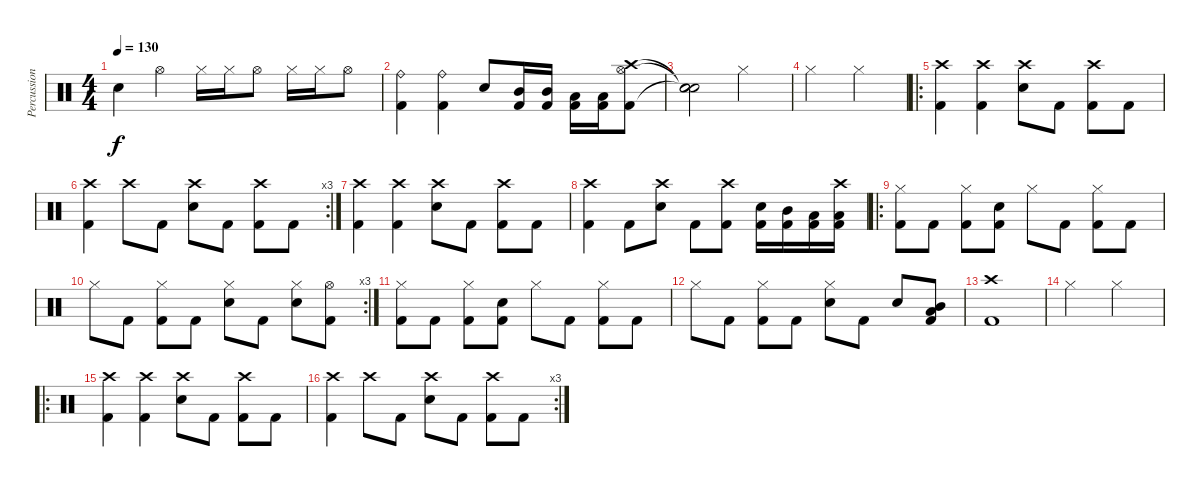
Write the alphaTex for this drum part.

\track ("Percussion" "Percussion") {instrument percussion}
\staff {score}
\articulation defaults
\ts (4 4)
\tempo 130
\clef neutral
\ks c "Snare (hit)"{t}.4{dy f} "Hi-Hat (open)".4 "Hi-Hat (closed)".16 "Hi-Hat (closed)".16 "Hi-Hat (open)".8 "Hi-Hat (closed)".16 "Hi-Hat (closed)".16 "Hi-Hat (open)".8
|
("Ride (bell)" "Kick (hit) 2").4 ("Ride (bell)" "Kick (hit) 2").4 "Electric Snare (hit)".8 ("Mid Tom (hit)" "Kick (hit) 2").16 ("Mid Tom (hit)" "Kick (hit) 2").16 ("Low Tom (hit)" "Kick (hit) 2").16 ("Low Floor Tom (hit)" "Kick (hit) 2").16 ("Crash high (hit)" "Hi-Hat (open)" "Kick (hit) 2").8 |
("Snare (hit)"{t} "Snare (hit)"{t} "Snare (hit)"{t}).2 "Hi-Hat (closed)".2 |
"Hi-Hat (closed)".2 "Hi-Hat (closed)".2 |
\ro
("Crash high (hit)" "Kick (hit) 2").4 ("Crash high (hit)" "Kick (hit) 2").4 ("Crash high (hit)" "Electric Snare (hit)").8 "Kick (hit) 2".8 ("Crash high (hit)" "Kick (hit) 2").8 "Kick (hit) 2".8 |
\rc 3
("Crash high (hit)" "Kick (hit) 2").4 "Crash high (hit)".8 "Kick (hit) 2".8 ("Crash high (hit)" "Electric Snare (hit)").8 "Kick (hit) 2".8 ("Crash high (hit)" "Kick (hit) 2").8 "Kick (hit) 2".8 |
("Crash high (hit)" "Kick (hit) 2").4 ("Crash high (hit)" "Kick (hit) 2").4 ("Crash high (hit)" "Electric Snare (hit)").8 "Kick (hit) 2".8 ("Crash high (hit)" "Kick (hit) 2").8 "Kick (hit) 2".8 |
("Crash high (hit)" "Kick (hit) 2").4 "Kick (hit) 2".8 ("Crash high (hit)" "Electric Snare (hit)").8 "Kick (hit) 2".8 ("Crash high (hit)" "Kick (hit) 2").8 ("Electric Snare (hit)" "Kick (hit) 2").16 ("Mid Tom (hit)" "Kick (hit) 2").16 ("Low Tom (hit)" "Kick (hit) 2").16 ("Crash high (hit)" "Low Floor Tom (hit)" "Kick (hit) 2").16 |
\ro
("Hi-Hat (closed)" "Kick (hit) 2").8 "Kick (hit) 2".8 ("Hi-Hat (closed)" "Kick (hit) 2").8 ("Electric Snare (hit)" "Kick (hit) 2").8 "Hi-Hat (closed)".8 "Kick (hit) 2".8 ("Hi-Hat (closed)" "Kick (hit) 2").8 "Kick (hit) 2".8 |
\rc 3 "Hi-Hat (closed)".8 "Kick (hit) 2".8
("Hi-Hat (closed)" "Kick (hit) 2").8 "Kick (hit) 2".8 ("Hi-Hat (closed)" "Electric Snare (hit)").8 "Kick (hit) 2".8 ("Hi-Hat (closed)" "Electric Snare (hit)").8 ("Hi-Hat (open)" "Kick (hit) 2").8 |
("Hi-Hat (closed)" "Kick (hit) 2").8 "Kick (hit) 2".8 ("Hi-Hat (closed)" "Kick (hit) 2").8 ("Electric Snare (hit)" "Kick (hit) 2").8 "Hi-Hat (closed)".8 "Kick (hit) 2".8 ("Hi-Hat (closed)" "Kick (hit) 2").8 "Kick (hit) 2".8 |
"Hi-Hat (closed)".8 "Kick (hit) 2".8 ("Hi-Hat (closed)" "Kick (hit) 2").8 "Kick (hit) 2".8 ("Hi-Hat (closed)" "Electric Snare (hit)").8 "Kick (hit) 2".8 "Electric Snare (hit)".8 ("Mid Tom (hit)" "Low Floor Tom (hit)" "Kick (hit) 2").8 |
("Crash high (hit)" "Kick (hit) 2").1 |
"Hi-Hat (closed)".2 "Hi-Hat (closed)".2 |
\ro
("Crash high (hit)" "Kick (hit) 2").4 ("Crash high (hit)" "Kick (hit) 2").4 ("Crash high (hit)" "Electric Snare (hit)").8 "Kick (hit) 2".8 ("Crash high (hit)" "Kick (hit) 2").8 "Kick (hit) 2".8 |
\rc 3
("Crash high (hit)" "Kick (hit) 2").4 "Crash high (hit)".8 "Kick (hit) 2".8 ("Crash high (hit)" "Electric Snare (hit)").8 "Kick (hit) 2".8 ("Crash high (hit)" "Kick (hit) 2").8 "Kick (hit) 2".8
